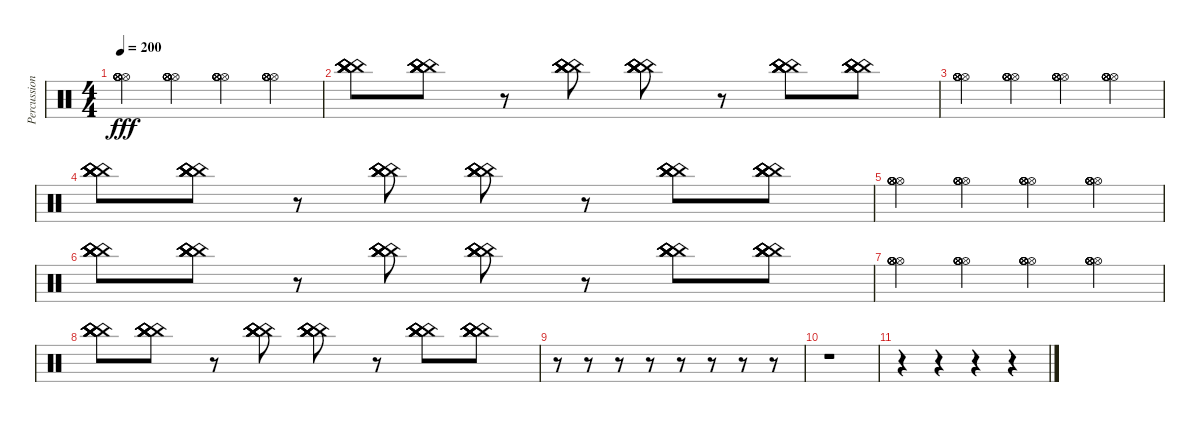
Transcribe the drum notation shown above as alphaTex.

\track ("Percussion" "Percussion") {instrument percussion}
\staff {score}
\articulation defaults
\ts (4 4)
\tempo 200
\clef neutral
\ks c
("Hi-Hat (open)" "Hi-Hat (open)" "Hi-Hat (open)" "Hi-Hat (open)" "Hi-Hat (open)" "Hi-Hat (open)").4{dy fff} ("Hi-Hat (open)" "Hi-Hat (open)" "Hi-Hat (open)" "Hi-Hat (open)" "Hi-Hat (open)" "Hi-Hat (open)").4 ("Hi-Hat (open)" "Hi-Hat (open)" "Hi-Hat (open)" "Hi-Hat (open)" "Hi-Hat (open)" "Hi-Hat (open)").4 ("Hi-Hat (open)" "Hi-Hat (open)" "Hi-Hat (open)" "Hi-Hat (open)" "Hi-Hat (open)" "Hi-Hat (open)").4 |
("China (hit)" "China (hit)" "China (hit)" "China (hit)" "China (hit)" "China (hit)").8 ("China (hit)" "China (hit)" "China (hit)" "China (hit)" "China (hit)" "China (hit)").8 r.8 ("China (hit)" "China (hit)" "China (hit)" "China (hit)" "China (hit)" "China (hit)").8 ("China (hit)" "China (hit)" "China (hit)" "China (hit)" "China (hit)" "China (hit)").8 r.8 ("China (hit)" "China (hit)" "China (hit)" "China (hit)" "China (hit)" "China (hit)").8 ("China (hit)" "China (hit)" "China (hit)" "China (hit)" "China (hit)" "China (hit)").8 |
("Hi-Hat (open)" "Hi-Hat (open)" "Hi-Hat (open)" "Hi-Hat (open)" "Hi-Hat (open)" "Hi-Hat (open)").4 ("Hi-Hat (open)" "Hi-Hat (open)" "Hi-Hat (open)" "Hi-Hat (open)" "Hi-Hat (open)" "Hi-Hat (open)").4 ("Hi-Hat (open)" "Hi-Hat (open)" "Hi-Hat (open)" "Hi-Hat (open)" "Hi-Hat (open)" "Hi-Hat (open)").4 ("Hi-Hat (open)" "Hi-Hat (open)" "Hi-Hat (open)" "Hi-Hat (open)" "Hi-Hat (open)" "Hi-Hat (open)").4 |
("China (hit)" "China (hit)" "China (hit)" "China (hit)" "China (hit)" "China (hit)").8 ("China (hit)" "China (hit)" "China (hit)" "China (hit)" "China (hit)" "China (hit)").8 r.8 ("China (hit)" "China (hit)" "China (hit)" "China (hit)" "China (hit)" "China (hit)").8 ("China (hit)" "China (hit)" "China (hit)" "China (hit)" "China (hit)" "China (hit)").8 r.8 ("China (hit)" "China (hit)" "China (hit)" "China (hit)" "China (hit)" "China (hit)").8 ("China (hit)" "China (hit)" "China (hit)" "China (hit)" "China (hit)" "China (hit)").8 |
("Hi-Hat (open)" "Hi-Hat (open)" "Hi-Hat (open)" "Hi-Hat (open)" "Hi-Hat (open)" "Hi-Hat (open)").4 ("Hi-Hat (open)" "Hi-Hat (open)" "Hi-Hat (open)" "Hi-Hat (open)" "Hi-Hat (open)" "Hi-Hat (open)").4 ("Hi-Hat (open)" "Hi-Hat (open)" "Hi-Hat (open)" "Hi-Hat (open)" "Hi-Hat (open)" "Hi-Hat (open)").4 ("Hi-Hat (open)" "Hi-Hat (open)" "Hi-Hat (open)" "Hi-Hat (open)" "Hi-Hat (open)" "Hi-Hat (open)").4 |
("China (hit)" "China (hit)" "China (hit)" "China (hit)" "China (hit)" "China (hit)").8 ("China (hit)" "China (hit)" "China (hit)" "China (hit)" "China (hit)" "China (hit)").8 r.8 ("China (hit)" "China (hit)" "China (hit)" "China (hit)" "China (hit)" "China (hit)").8 ("China (hit)" "China (hit)" "China (hit)" "China (hit)" "China (hit)" "China (hit)").8 r.8 ("China (hit)" "China (hit)" "China (hit)" "China (hit)" "China (hit)" "China (hit)").8 ("China (hit)" "China (hit)" "China (hit)" "China (hit)" "China (hit)" "China (hit)").8 |
("Hi-Hat (open)" "Hi-Hat (open)" "Hi-Hat (open)" "Hi-Hat (open)" "Hi-Hat (open)" "Hi-Hat (open)").4 ("Hi-Hat (open)" "Hi-Hat (open)" "Hi-Hat (open)" "Hi-Hat (open)" "Hi-Hat (open)" "Hi-Hat (open)").4 ("Hi-Hat (open)" "Hi-Hat (open)" "Hi-Hat (open)" "Hi-Hat (open)" "Hi-Hat (open)" "Hi-Hat (open)").4 ("Hi-Hat (open)" "Hi-Hat (open)" "Hi-Hat (open)" "Hi-Hat (open)" "Hi-Hat (open)" "Hi-Hat (open)").4 |
("China (hit)" "China (hit)" "China (hit)" "China (hit)" "China (hit)" "China (hit)").8 ("China (hit)" "China (hit)" "China (hit)" "China (hit)" "China (hit)" "China (hit)").8 r.8 ("China (hit)" "China (hit)" "China (hit)" "China (hit)" "China (hit)" "China (hit)").8 ("China (hit)" "China (hit)" "China (hit)" "China (hit)" "China (hit)" "China (hit)").8 r.8 ("China (hit)" "China (hit)" "China (hit)" "China (hit)" "China (hit)" "China (hit)").8 ("China (hit)" "China (hit)" "China (hit)" "China (hit)" "China (hit)" "China (hit)").8 |
r.8 r.8 r.8 r.8 r.8 r.8 r.8 r.8 |
r.1 |
r.4 r.4 r.4 r.4
